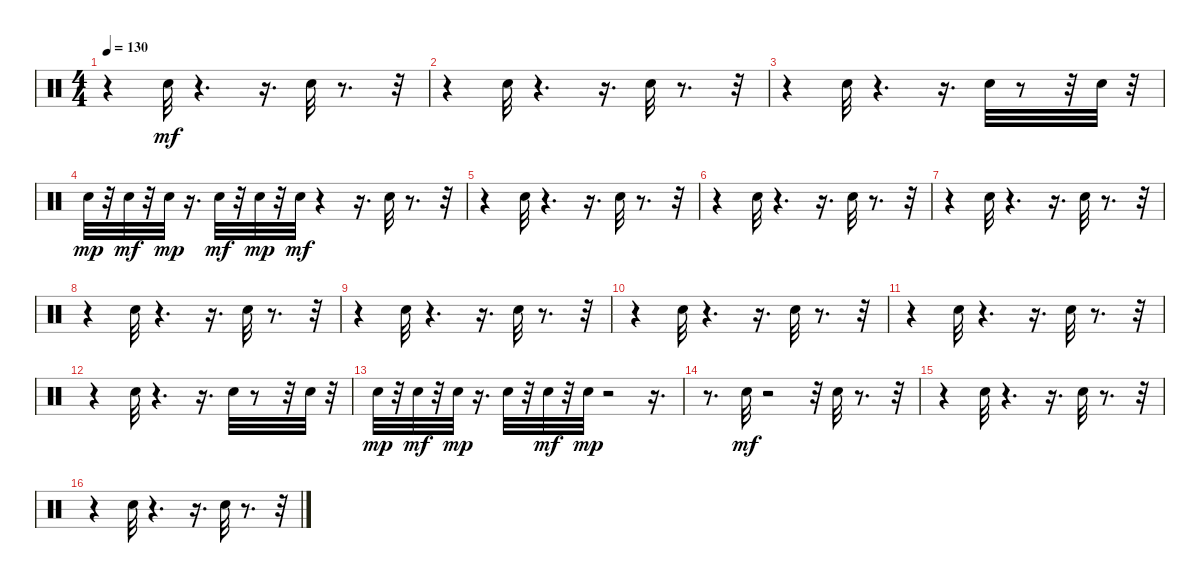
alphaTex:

\track "" {instrument percussion}
\staff {score}
\articulation defaults
\ts (4 4)
\tempo 130
\clef neutral
\ks c
r.4{dy mf} "Electric Snare (hit)".32 r.4{d} r.16{d} "Electric Snare (hit)".32 r.8{d} r.32 |
r.4 "Electric Snare (hit)".32 r.4{d} r.16{d} "Electric Snare (hit)".32 r.8{d} r.32 |
r.4 "Electric Snare (hit)".32 r.4{d} r.16{d} "Electric Snare (hit)".32 r.8 r.32 "Electric Snare (hit)".32 r.32 |
"Electric Snare (hit)".32{dy mp} r.32 "Electric Snare (hit)".32{dy mf} r.32 "Electric Snare (hit)".32{dy mp} r.16{d} "Electric Snare (hit)".32{dy mf} r.32 "Electric Snare (hit)".32{dy mp} r.32 "Electric Snare (hit)".32{dy mf} r.4 r.16{d} "Electric Snare (hit)".32 r.8{d} r.32 |
r.4 "Electric Snare (hit)".32 r.4{d} r.16{d} "Electric Snare (hit)".32 r.8{d} r.32 |
r.4 "Electric Snare (hit)".32 r.4{d} r.16{d} "Electric Snare (hit)".32 r.8{d} r.32 |
r.4 "Electric Snare (hit)".32 r.4{d} r.16{d} "Electric Snare (hit)".32 r.8{d} r.32 |
r.4 "Electric Snare (hit)".32 r.4{d} r.16{d} "Electric Snare (hit)".32 r.8{d} r.32 |
r.4 "Electric Snare (hit)".32 r.4{d} r.16{d} "Electric Snare (hit)".32 r.8{d} r.32 |
r.4 "Electric Snare (hit)".32 r.4{d} r.16{d} "Electric Snare (hit)".32 r.8{d} r.32 |
r.4 "Electric Snare (hit)".32 r.4{d} r.16{d} "Electric Snare (hit)".32 r.8{d} r.32 |
r.4 "Electric Snare (hit)".32 r.4{d} r.16{d} "Electric Snare (hit)".32 r.8 r.32 "Electric Snare (hit)".32 r.32 |
"Electric Snare (hit)".32{dy mp} r.32 "Electric Snare (hit)".32{dy mf} r.32 "Electric Snare (hit)".32{dy mp} r.16{d} "Electric Snare (hit)".32 r.32 "Electric Snare (hit)".32{dy mf} r.32 "Electric Snare (hit)".32{dy mp} r.2 r.16{d} |
r.8{d} "Electric Snare (hit)".32{dy mf} r.2 r.32 "Electric Snare (hit)".32 r.8{d} r.32 |
r.4 "Electric Snare (hit)".32 r.4{d} r.16{d} "Electric Snare (hit)".32 r.8{d} r.32 |
r.4 "Electric Snare (hit)".32 r.4{d} r.16{d} "Electric Snare (hit)".32 r.8{d} r.32
